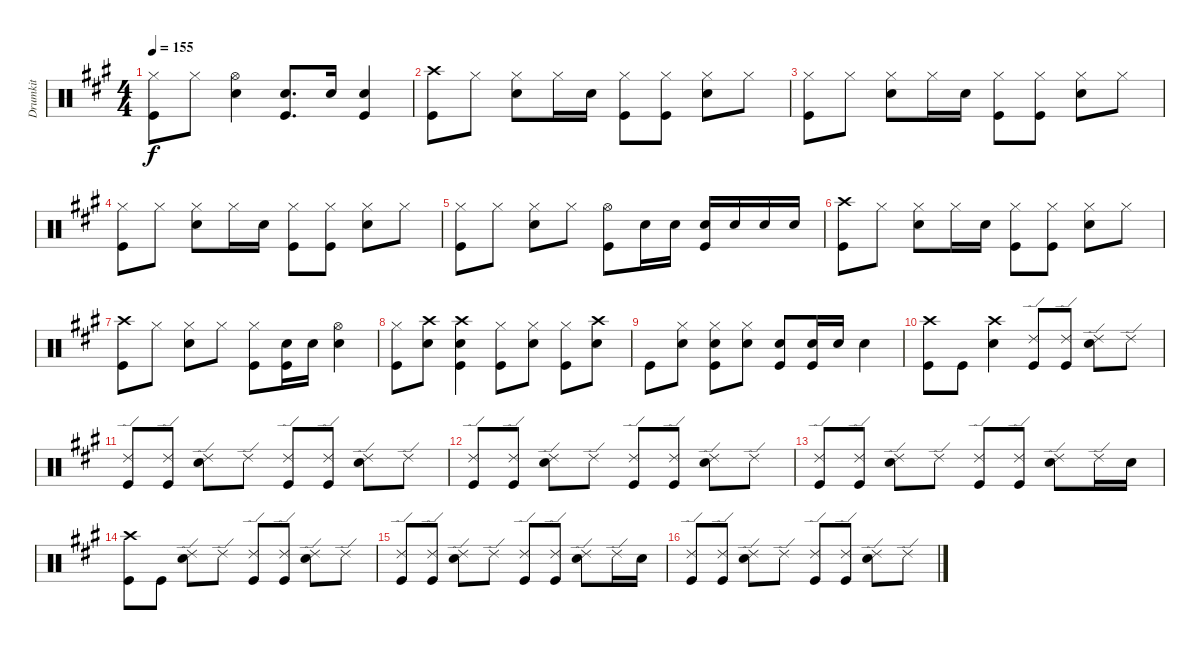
\track ("Drumkit" "Drumkit") {instrument percussion}
\staff {score}
\articulation defaults
\ts (4 4)
\tempo 155
\clef neutral
\ks a
("Hi-Hat (closed)" "Kick (hit)").8{dy f} "Hi-Hat (closed)".8 ("Hi-Hat (open)" "Snare (hit) 2").4 ("Snare (hit) 2" "Kick (hit)").8{d} "Snare (hit) 2".16 ("Snare (hit) 2" "Kick (hit)").4 |
("Crash high (hit)" "Kick (hit)").8 "Hi-Hat (closed)".8 ("Hi-Hat (closed)" "Snare (hit) 2").8 "Hi-Hat (closed)".16 "Snare (hit) 2".16 ("Hi-Hat (closed)" "Kick (hit)").8 ("Hi-Hat (closed)" "Kick (hit)").8 ("Hi-Hat (closed)" "Snare (hit) 2").8 "Hi-Hat (closed)".8 |
("Hi-Hat (closed)" "Kick (hit)").8 "Hi-Hat (closed)".8 ("Hi-Hat (closed)" "Snare (hit) 2").8 "Hi-Hat (closed)".16 "Snare (hit) 2".16 ("Hi-Hat (closed)" "Kick (hit)").8 ("Hi-Hat (closed)" "Kick (hit)").8 ("Hi-Hat (closed)" "Snare (hit) 2").8 "Hi-Hat (closed)".8 |
("Hi-Hat (closed)" "Kick (hit)").8 "Hi-Hat (closed)".8 ("Hi-Hat (closed)" "Snare (hit) 2").8 "Hi-Hat (closed)".16 "Snare (hit) 2".16 ("Hi-Hat (closed)" "Kick (hit)").8 ("Hi-Hat (closed)" "Kick (hit)").8 ("Hi-Hat (closed)" "Snare (hit) 2").8 "Hi-Hat (closed)".8 |
("Hi-Hat (closed)" "Kick (hit)").8 "Hi-Hat (closed)".8 ("Hi-Hat (closed)" "Snare (hit) 2").8 "Hi-Hat (closed)".8 ("Hi-Hat (open)" "Kick (hit)").8 "Snare (hit) 2".16 "Snare (hit) 2".16 ("Snare (hit) 2" "Kick (hit)").16 "Snare (hit) 2".16 "Snare (hit) 2".16 "Snare (hit) 2".16 |
("Crash high (hit)" "Kick (hit)").8 "Hi-Hat (closed)".8 ("Hi-Hat (closed)" "Snare (hit) 2").8 "Hi-Hat (closed)".16 "Snare (hit) 2".16 ("Hi-Hat (closed)" "Kick (hit)").8 ("Hi-Hat (closed)" "Kick (hit)").8 ("Hi-Hat (closed)" "Snare (hit) 2").8 "Hi-Hat (closed)".8 |
("Crash high (hit)" "Kick (hit)").8 "Hi-Hat (closed)".8 ("Hi-Hat (closed)" "Snare (hit) 2").8 "Hi-Hat (closed)".8 ("Hi-Hat (closed)" "Kick (hit)").8 ("Snare (hit) 2" "Kick (hit)").16 "Snare (hit) 2".16 ("Hi-Hat (open)" "Snare (hit) 2").4 |
("Hi-Hat (closed)" "Kick (hit)").8 ("Crash high (hit)" "Snare (hit) 2").8 ("Crash high (hit)" "Snare (hit) 2" "Kick (hit)").4 ("Hi-Hat (closed)" "Kick (hit)").8 ("Hi-Hat (closed)" "Snare (hit) 2").8 ("Hi-Hat (closed)" "Kick (hit)").8 ("Crash high (hit)" "Snare (hit) 2").8 |
"Kick (hit)".8 ("Hi-Hat (closed)" "Snare (hit) 2").8 ("Hi-Hat (closed)" "Snare (hit) 2" "Kick (hit)").8 ("Hi-Hat (closed)" "Snare (hit) 2").8 ("Snare (hit) 2" "Kick (hit)").8 ("Snare (hit) 2" "Kick (hit)").16 "Snare (hit) 2".16 "Snare (hit) 2".4 |
("Crash high (hit)" "Kick (hit)").8 "Kick (hit)".8 ("Crash high (hit)" "Snare (hit) 2").4 ("Ride (edge) 2" "Kick (hit)").8 ("Ride (edge) 2" "Kick (hit)").8 ("Ride (edge) 2" "Snare (hit) 2").8 "Ride (edge) 2".8 |
("Ride (edge) 2" "Kick (hit)").8 ("Ride (edge) 2" "Kick (hit)").8 ("Ride (edge) 2" "Snare (hit) 2").8 "Ride (edge) 2".8 ("Ride (edge) 2" "Kick (hit)").8 ("Ride (edge) 2" "Kick (hit)").8 ("Ride (edge) 2" "Snare (hit) 2").8 "Ride (edge) 2".8 |
("Ride (edge) 2" "Kick (hit)").8 ("Ride (edge) 2" "Kick (hit)").8 ("Ride (edge) 2" "Snare (hit) 2").8 "Ride (edge) 2".8 ("Ride (edge) 2" "Kick (hit)").8 ("Ride (edge) 2" "Kick (hit)").8 ("Ride (edge) 2" "Snare (hit) 2").8 "Ride (edge) 2".8 |
("Ride (edge) 2" "Kick (hit)").8 ("Ride (edge) 2" "Kick (hit)").8 ("Ride (edge) 2" "Snare (hit) 2").8 "Ride (edge) 2".8 ("Ride (edge) 2" "Kick (hit)").8 ("Ride (edge) 2" "Kick (hit)").8 ("Ride (edge) 2" "Snare (hit) 2").8 "Ride (edge) 2".16 "Snare (hit) 2".16 |
("Crash high (hit)" "Kick (hit)").8 "Kick (hit)".8 ("Ride (edge) 2" "Snare (hit) 2").8 "Ride (edge) 2".8 ("Ride (edge) 2" "Kick (hit)").8 ("Ride (edge) 2" "Kick (hit)").8 ("Ride (edge) 2" "Snare (hit) 2").8 "Ride (edge) 2".8 |
("Ride (edge) 2" "Kick (hit)").8 ("Ride (edge) 2" "Kick (hit)").8 ("Ride (edge) 2" "Snare (hit) 2").8 "Ride (edge) 2".8 ("Ride (edge) 2" "Kick (hit)").8 ("Ride (edge) 2" "Kick (hit)").8 ("Ride (edge) 2" "Snare (hit) 2").8 "Ride (edge) 2".16 "Snare (hit) 2".16 |
("Ride (edge) 2" "Kick (hit)").8 ("Ride (edge) 2" "Kick (hit)").8 ("Ride (edge) 2" "Snare (hit) 2").8 "Ride (edge) 2".8 ("Ride (edge) 2" "Kick (hit)").8 ("Ride (edge) 2" "Kick (hit)").8 ("Ride (edge) 2" "Snare (hit) 2").8 "Ride (edge) 2".8
